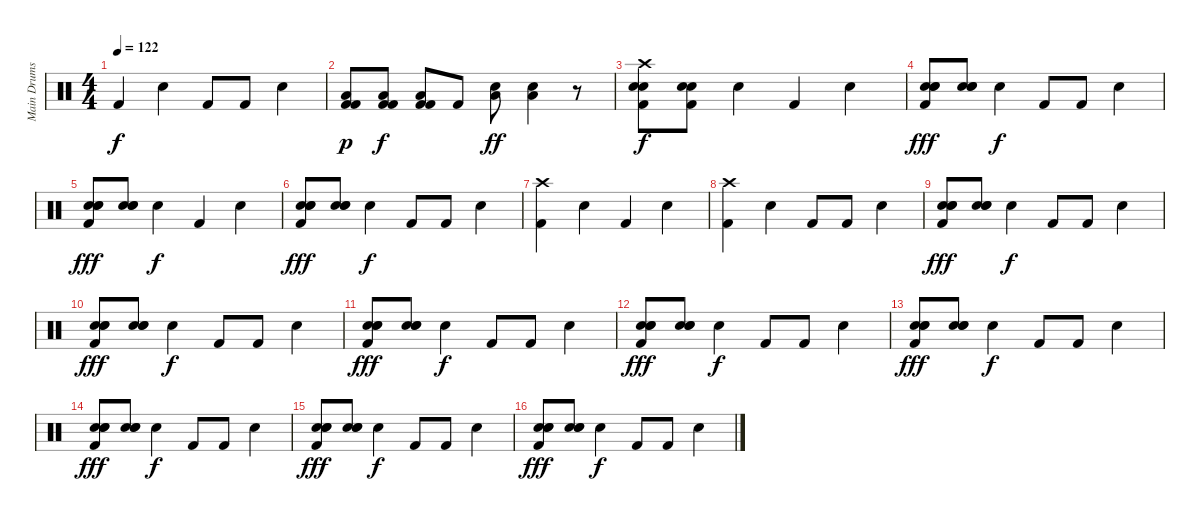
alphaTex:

\track ("Main Drums" "Main Drums") {instrument percussion}
\staff {score}
\articulation defaults
\ts (4 4)
\tempo 122
\clef neutral
\ks c "Kick (hit) 2".4{dy f} "Snare (hit) 2".4 "Kick (hit) 2".8 "Kick (hit) 2".8 "Snare (hit) 2".4
|
("Kick (hit) 2" "Kick (hit) 2" "Low Floor Tom (hit)").8{dy p} ("Kick (hit) 2" "Kick (hit) 2" "Low Floor Tom (hit)").8{dy f} ("Kick (hit) 2" "Kick (hit) 2" "Low Floor Tom (hit)").8 "Kick (hit) 2".8 ("Snare (hit) 2" "Low Floor Tom (hit)").8{dy ff} ("Snare (hit) 2" "Low Floor Tom (hit)").4 r.8 |
("Hand Clap (hit)" "Kick (hit) 2" "Electric Snare (hit)" "Crash high (hit)").8{dy f} ("Hand Clap (hit)" "Kick (hit) 2" "Electric Snare (hit)").8 "Snare (hit) 2".4 "Kick (hit) 2".4 "Snare (hit) 2".4 |
("Hand Clap (hit)" "Hand Clap (hit)" "Electric Snare (hit)" "Kick (hit) 2").8{dy fff} ("Hand Clap (hit)" "Hand Clap (hit)" "Electric Snare (hit)").8 "Snare (hit) 2".4{dy f} "Kick (hit) 2".8 "Kick (hit) 2".8 "Snare (hit) 2".4 |
("Hand Clap (hit)" "Hand Clap (hit)" "Electric Snare (hit)" "Kick (hit) 2").8{dy fff} ("Hand Clap (hit)" "Hand Clap (hit)" "Electric Snare (hit)").8 "Snare (hit) 2".4{dy f} "Kick (hit) 2".4 "Snare (hit) 2".4 |
("Hand Clap (hit)" "Hand Clap (hit)" "Electric Snare (hit)" "Kick (hit) 2").8{dy fff} ("Hand Clap (hit)" "Hand Clap (hit)" "Electric Snare (hit)").8 "Snare (hit) 2".4{dy f} "Kick (hit) 2".8 "Kick (hit) 2".8 "Snare (hit) 2".4 |
("Kick (hit) 2" "Crash high (hit)").4 "Snare (hit) 2".4 "Kick (hit) 2".4 "Snare (hit) 2".4 |
("Kick (hit) 2" "Crash high (hit)").4 "Snare (hit) 2".4 "Kick (hit) 2".8 "Kick (hit) 2".8 "Snare (hit) 2".4 |
("Hand Clap (hit)" "Hand Clap (hit)" "Electric Snare (hit)" "Kick (hit) 2").8{dy fff} ("Hand Clap (hit)" "Hand Clap (hit)" "Electric Snare (hit)").8 "Snare (hit) 2".4{dy f} "Kick (hit) 2".8 "Kick (hit) 2".8 "Snare (hit) 2".4 |
("Hand Clap (hit)" "Hand Clap (hit)" "Electric Snare (hit)" "Kick (hit) 2").8{dy fff} ("Hand Clap (hit)" "Hand Clap (hit)" "Electric Snare (hit)").8 "Snare (hit) 2".4{dy f} "Kick (hit) 2".8 "Kick (hit) 2".8 "Snare (hit) 2".4 |
("Hand Clap (hit)" "Hand Clap (hit)" "Electric Snare (hit)" "Kick (hit) 2").8{dy fff} ("Hand Clap (hit)" "Hand Clap (hit)" "Electric Snare (hit)").8 "Snare (hit) 2".4{dy f} "Kick (hit) 2".8 "Kick (hit) 2".8 "Snare (hit) 2".4 |
("Hand Clap (hit)" "Hand Clap (hit)" "Electric Snare (hit)" "Kick (hit) 2").8{dy fff} ("Hand Clap (hit)" "Hand Clap (hit)" "Electric Snare (hit)").8 "Snare (hit) 2".4{dy f} "Kick (hit) 2".8 "Kick (hit) 2".8 "Snare (hit) 2".4 |
("Hand Clap (hit)" "Hand Clap (hit)" "Electric Snare (hit)" "Kick (hit) 2").8{dy fff} ("Hand Clap (hit)" "Hand Clap (hit)" "Electric Snare (hit)").8 "Snare (hit) 2".4{dy f} "Kick (hit) 2".8 "Kick (hit) 2".8 "Snare (hit) 2".4 |
("Hand Clap (hit)" "Hand Clap (hit)" "Electric Snare (hit)" "Kick (hit) 2").8{dy fff} ("Hand Clap (hit)" "Hand Clap (hit)" "Electric Snare (hit)").8 "Snare (hit) 2".4{dy f} "Kick (hit) 2".8 "Kick (hit) 2".8 "Snare (hit) 2".4 |
("Hand Clap (hit)" "Hand Clap (hit)" "Electric Snare (hit)" "Kick (hit) 2").8{dy fff} ("Hand Clap (hit)" "Hand Clap (hit)" "Electric Snare (hit)").8 "Snare (hit) 2".4{dy f} "Kick (hit) 2".8 "Kick (hit) 2".8 "Snare (hit) 2".4 |
("Hand Clap (hit)" "Hand Clap (hit)" "Electric Snare (hit)" "Kick (hit) 2").8{dy fff} ("Hand Clap (hit)" "Hand Clap (hit)" "Electric Snare (hit)").8 "Snare (hit) 2".4{dy f} "Kick (hit) 2".8 "Kick (hit) 2".8 "Snare (hit) 2".4
